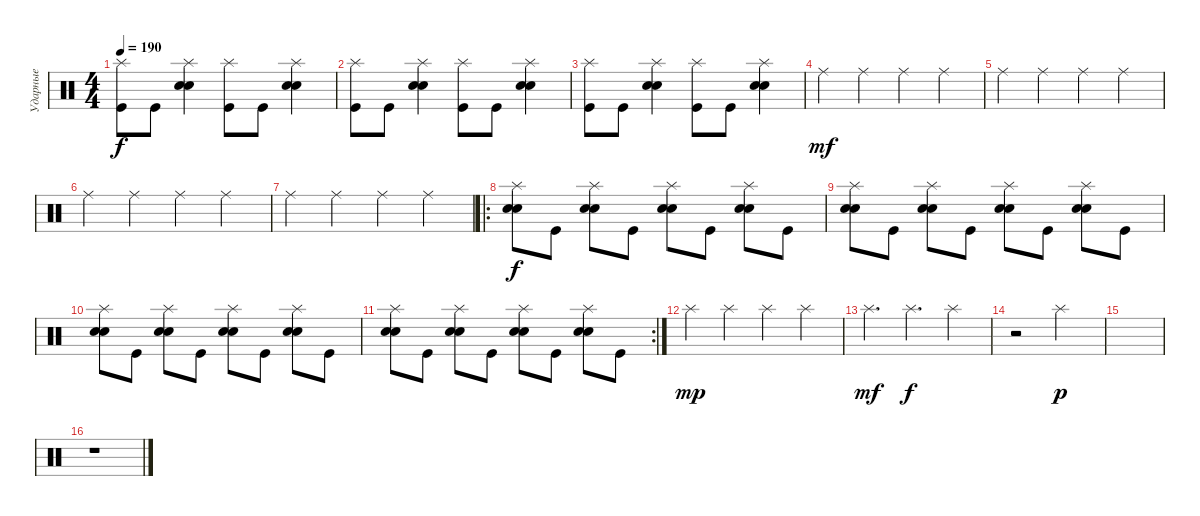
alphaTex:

\track ("Ударные" "Ударные") {instrument percussion}
\staff {score}
\articulation defaults
\ts (4 4)
\tempo 190
\clef neutral
\ks c
("Splash (hit)" "Kick (hit)").8{dy f} "Kick (hit)".8 ("Splash (hit)" "Snare (hit) 2" "Electric Snare (hit)").4 ("Splash (hit)" "Kick (hit)").8 "Kick (hit)".8 ("Splash (hit)" "Snare (hit) 2" "Electric Snare (hit)").4 |
("Splash (hit)" "Kick (hit)").8 "Kick (hit)".8 ("Splash (hit)" "Snare (hit) 2" "Electric Snare (hit)").4 ("Splash (hit)" "Kick (hit)").8 "Kick (hit)".8 ("Splash (hit)" "Snare (hit) 2" "Electric Snare (hit)").4 |
("Splash (hit)" "Kick (hit)").8 "Kick (hit)".8 ("Splash (hit)" "Snare (hit) 2" "Electric Snare (hit)").4 ("Splash (hit)" "Kick (hit)").8 "Kick (hit)".8 ("Splash (hit)" "Snare (hit) 2" "Electric Snare (hit)").4 |
"Ride (middle)".4{dy mf} "Ride (middle)".4 "Ride (middle)".4 "Ride (middle)".4 |
"Ride (middle)".4 "Ride (middle)".4 "Ride (middle)".4 "Ride (middle)".4 |
"Ride (middle)".4 "Ride (middle)".4 "Ride (middle)".4 "Ride (middle)".4 |
"Ride (middle)".4 "Ride (middle)".4 "Ride (middle)".4 "Ride (middle)".4 |
\ro
("Splash (hit)" "Electric Snare (hit)" "Snare (hit) 2").8{dy f} "Kick (hit)".8 ("Splash (hit)" "Electric Snare (hit)" "Snare (hit) 2").8 "Kick (hit)".8 ("Splash (hit)" "Electric Snare (hit)" "Snare (hit) 2").8 "Kick (hit)".8 ("Splash (hit)" "Electric Snare (hit)" "Snare (hit) 2").8 "Kick (hit)".8 |
("Splash (hit)" "Electric Snare (hit)" "Snare (hit) 2").8 "Kick (hit)".8 ("Splash (hit)" "Electric Snare (hit)" "Snare (hit) 2").8 "Kick (hit)".8 ("Splash (hit)" "Electric Snare (hit)" "Snare (hit) 2").8 "Kick (hit)".8 ("Splash (hit)" "Electric Snare (hit)" "Snare (hit) 2").8 "Kick (hit)".8 |
("Splash (hit)" "Electric Snare (hit)" "Snare (hit) 2").8 "Kick (hit)".8 ("Splash (hit)" "Electric Snare (hit)" "Snare (hit) 2").8 "Kick (hit)".8 ("Splash (hit)" "Electric Snare (hit)" "Snare (hit) 2").8 "Kick (hit)".8 ("Splash (hit)" "Electric Snare (hit)" "Snare (hit) 2").8 "Kick (hit)".8 |
\rc 2
("Splash (hit)" "Electric Snare (hit)" "Snare (hit) 2").8 "Kick (hit)".8 ("Splash (hit)" "Electric Snare (hit)" "Snare (hit) 2").8 "Kick (hit)".8 ("Splash (hit)" "Electric Snare (hit)" "Snare (hit) 2").8 "Kick (hit)".8 ("Splash (hit)" "Electric Snare (hit)" "Snare (hit) 2").8 "Kick (hit)".8 |
"Splash (hit)".4{dy mp} "Splash (hit)".4 "Splash (hit)".4 "Splash (hit)".4 |
"Splash (hit)".4{d dy mf} "Splash (hit)".4{d dy f} "Splash (hit)".4 |
r.2 "Splash (hit)".2{dy p} |
|
r.1
